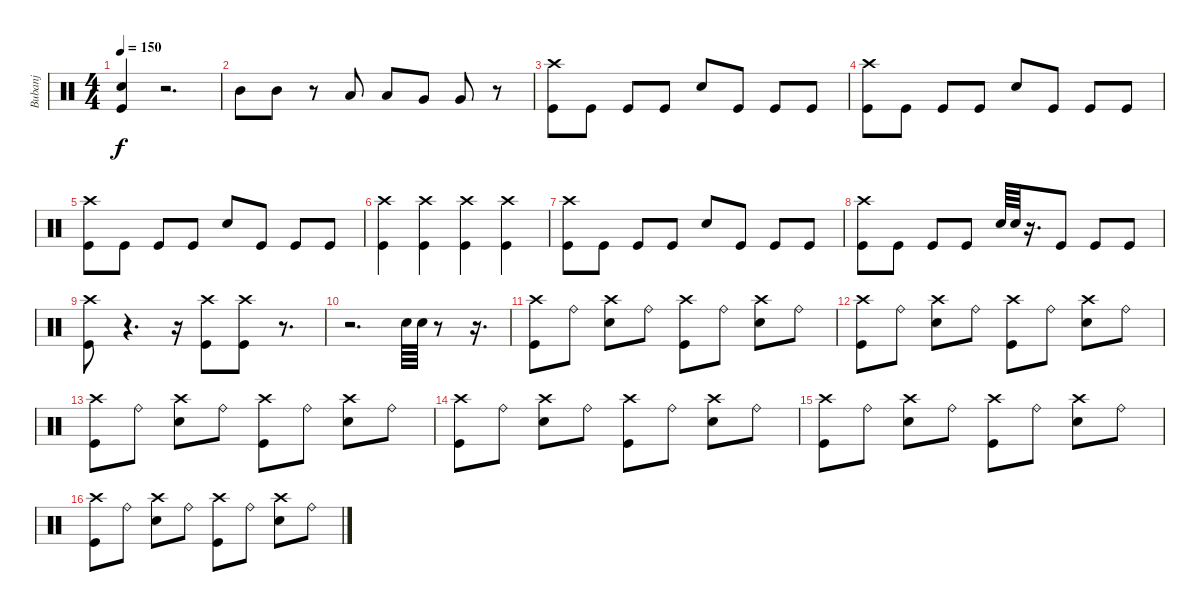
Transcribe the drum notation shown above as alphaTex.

\track ("Bubanj" "Bubanj") {instrument percussion}
\staff {score}
\articulation defaults
\ts (4 4)
\tempo 150
\clef neutral
\ks c
("Electric Snare (hit)" "Kick (hit)").4{dy f} r.2{d} |
"Mid Tom (hit)".8 "Mid Tom (hit)".8 r.8 "Low Tom (hit)".8 "Low Tom (hit)".8 "Very Low Tom (hit)".8 "Very Low Tom (hit)".8 r.8 |
("Crash high (hit)" "Kick (hit)").8 "Kick (hit)".8 "Kick (hit)".8 "Kick (hit)".8 "Electric Snare (hit)".8 "Kick (hit)".8 "Kick (hit)".8 "Kick (hit)".8 |
("Crash high (hit)" "Kick (hit)").8 "Kick (hit)".8 "Kick (hit)".8 "Kick (hit)".8 "Electric Snare (hit)".8 "Kick (hit)".8 "Kick (hit)".8 "Kick (hit)".8 |
("Crash high (hit)" "Kick (hit)").8 "Kick (hit)".8 "Kick (hit)".8 "Kick (hit)".8 "Electric Snare (hit)".8 "Kick (hit)".8 "Kick (hit)".8 "Kick (hit)".8 |
("Crash high (hit)" "Kick (hit)").4 ("Crash high (hit)" "Kick (hit)").4 ("Crash high (hit)" "Kick (hit)").4 ("Crash high (hit)" "Kick (hit)").4 |
("Crash high (hit)" "Kick (hit)").8 "Kick (hit)".8 "Kick (hit)".8 "Kick (hit)".8 "Electric Snare (hit)".8 "Kick (hit)".8 "Kick (hit)".8 "Kick (hit)".8 |
("Crash high (hit)" "Kick (hit)").8 "Kick (hit)".8 "Kick (hit)".8 "Kick (hit)".8 "Electric Snare (hit)".64 "Electric Snare (hit)".64 r.16{d} "Kick (hit)".8 "Kick (hit)".8 "Kick (hit)".8 |
("Crash high (hit)" "Kick (hit)").8 r.4{d} r.16 ("Crash high (hit)" "Kick (hit)").8 ("Crash high (hit)" "Kick (hit)").8 r.8{d} |
r.2{d} "Electric Snare (hit)".64 "Electric Snare (hit)".64 r.8 r.16{d} |
("Crash high (hit)" "Kick (hit)").8 "Ride (bell)".8 ("Crash high (hit)" "Electric Snare (hit)").8 "Ride (bell)".8 ("Crash high (hit)" "Kick (hit)").8 "Ride (bell)".8 ("Crash high (hit)" "Electric Snare (hit)").8 "Ride (bell)".8 |
("Crash high (hit)" "Kick (hit)").8 "Ride (bell)".8 ("Crash high (hit)" "Electric Snare (hit)").8 "Ride (bell)".8 ("Crash high (hit)" "Kick (hit)").8 "Ride (bell)".8 ("Crash high (hit)" "Electric Snare (hit)").8 "Ride (bell)".8 |
("Crash high (hit)" "Kick (hit)").8 "Ride (bell)".8 ("Crash high (hit)" "Electric Snare (hit)").8 "Ride (bell)".8 ("Crash high (hit)" "Kick (hit)").8 "Ride (bell)".8 ("Crash high (hit)" "Electric Snare (hit)").8 "Ride (bell)".8 |
("Crash high (hit)" "Kick (hit)").8 "Ride (bell)".8 ("Crash high (hit)" "Electric Snare (hit)").8 "Ride (bell)".8 ("Crash high (hit)" "Kick (hit)").8 "Ride (bell)".8 ("Crash high (hit)" "Electric Snare (hit)").8 "Ride (bell)".8 |
("Crash high (hit)" "Kick (hit)").8 "Ride (bell)".8 ("Crash high (hit)" "Electric Snare (hit)").8 "Ride (bell)".8 ("Crash high (hit)" "Kick (hit)").8 "Ride (bell)".8 ("Crash high (hit)" "Electric Snare (hit)").8 "Ride (bell)".8 |
("Crash high (hit)" "Kick (hit)").8 "Ride (bell)".8 ("Crash high (hit)" "Electric Snare (hit)").8 "Ride (bell)".8 ("Crash high (hit)" "Kick (hit)").8 "Ride (bell)".8 ("Crash high (hit)" "Electric Snare (hit)").8 "Ride (bell)".8
